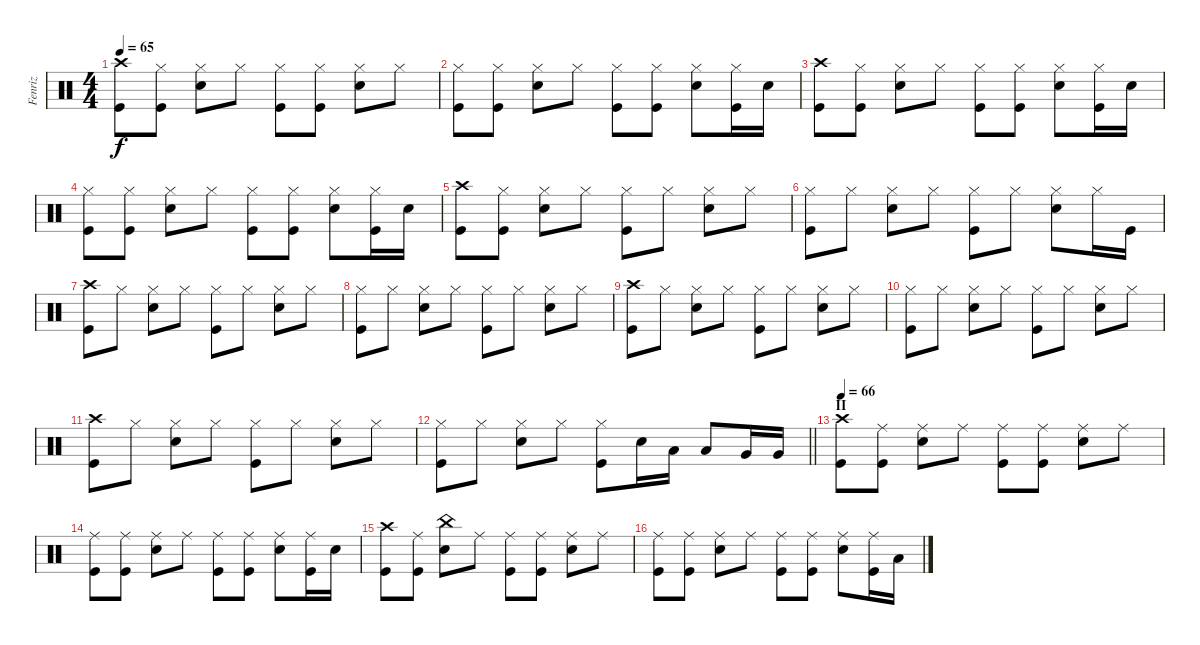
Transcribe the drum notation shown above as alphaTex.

\track ("Fenriz" "Fenriz") {instrument percussion}
\staff {score}
\articulation defaults
\ts (4 4)
\tempo 65
\clef neutral
\ks c
("Kick (hit)" "Crash high (hit)").8{dy f} ("Kick (hit)" "Hi-Hat (closed)").8 ("Snare (hit) 2" "Hi-Hat (closed)").8 "Hi-Hat (closed)".8 ("Kick (hit)" "Hi-Hat (closed)").8 ("Kick (hit)" "Hi-Hat (closed)").8 ("Snare (hit) 2" "Hi-Hat (closed)").8 "Hi-Hat (closed)".8 |
("Kick (hit)" "Hi-Hat (closed)").8 ("Kick (hit)" "Hi-Hat (closed)").8 ("Snare (hit) 2" "Hi-Hat (closed)").8 "Hi-Hat (closed)".8 ("Kick (hit)" "Hi-Hat (closed)").8 ("Kick (hit)" "Hi-Hat (closed)").8 ("Snare (hit) 2" "Hi-Hat (closed)").8 ("Kick (hit)" "Hi-Hat (closed)").16 "Snare (hit) 2".16 |
("Kick (hit)" "Crash high (hit)").8 ("Kick (hit)" "Hi-Hat (closed)").8 ("Snare (hit) 2" "Hi-Hat (closed)").8 "Hi-Hat (closed)".8 ("Kick (hit)" "Hi-Hat (closed)").8 ("Kick (hit)" "Hi-Hat (closed)").8 ("Snare (hit) 2" "Hi-Hat (closed)").8 ("Kick (hit)" "Hi-Hat (closed)").16 "Snare (hit) 2".16 |
("Kick (hit)" "Hi-Hat (closed)").8 ("Kick (hit)" "Hi-Hat (closed)").8 ("Snare (hit) 2" "Hi-Hat (closed)").8 "Hi-Hat (closed)".8 ("Kick (hit)" "Hi-Hat (closed)").8 ("Kick (hit)" "Hi-Hat (closed)").8 ("Snare (hit) 2" "Hi-Hat (closed)").8 ("Kick (hit)" "Hi-Hat (closed)").16 "Snare (hit) 2".16 |
("Kick (hit)" "Crash high (hit)").8 ("Kick (hit)" "Hi-Hat (closed)").8 ("Snare (hit) 2" "Hi-Hat (closed)").8 "Hi-Hat (closed)".8 ("Kick (hit)" "Hi-Hat (closed)").8 "Hi-Hat (closed)".8 ("Snare (hit) 2" "Hi-Hat (closed)").8 "Hi-Hat (closed)".8 |
("Kick (hit)" "Hi-Hat (closed)").8 "Hi-Hat (closed)".8 ("Snare (hit) 2" "Hi-Hat (closed)").8 "Hi-Hat (closed)".8 ("Kick (hit)" "Hi-Hat (closed)").8 "Hi-Hat (closed)".8 ("Snare (hit) 2" "Hi-Hat (closed)").8 "Hi-Hat (closed)".16 "Kick (hit)".16 |
("Kick (hit)" "Crash high (hit)").8 "Hi-Hat (closed)".8 ("Snare (hit) 2" "Hi-Hat (closed)").8 "Hi-Hat (closed)".8 ("Kick (hit)" "Hi-Hat (closed)").8 "Hi-Hat (closed)".8 ("Snare (hit) 2" "Hi-Hat (closed)").8 "Hi-Hat (closed)".8 |
("Kick (hit)" "Hi-Hat (closed)").8 "Hi-Hat (closed)".8 ("Snare (hit) 2" "Hi-Hat (closed)").8 "Hi-Hat (closed)".8 ("Kick (hit)" "Hi-Hat (closed)").8 "Hi-Hat (closed)".8 ("Snare (hit) 2" "Hi-Hat (closed)").8 "Hi-Hat (closed)".8 |
("Kick (hit)" "Crash high (hit)").8 "Hi-Hat (closed)".8 ("Snare (hit) 2" "Hi-Hat (closed)").8 "Hi-Hat (closed)".8 ("Kick (hit)" "Hi-Hat (closed)").8 "Hi-Hat (closed)".8 ("Snare (hit) 2" "Hi-Hat (closed)").8 "Hi-Hat (closed)".8 |
("Kick (hit)" "Hi-Hat (closed)").8 "Hi-Hat (closed)".8 ("Snare (hit) 2" "Hi-Hat (closed)").8 "Hi-Hat (closed)".8 ("Kick (hit)" "Hi-Hat (closed)").8 "Hi-Hat (closed)".8 ("Snare (hit) 2" "Hi-Hat (closed)").8 "Hi-Hat (closed)".8 |
("Kick (hit)" "Crash high (hit)").8 "Hi-Hat (closed)".8 ("Snare (hit) 2" "Hi-Hat (closed)").8 "Hi-Hat (closed)".8 ("Kick (hit)" "Hi-Hat (closed)").8 "Hi-Hat (closed)".8 ("Snare (hit) 2" "Hi-Hat (closed)").8 "Hi-Hat (closed)".8 |
\barLineRight lightlight
("Kick (hit)" "Hi-Hat (closed)").8 "Hi-Hat (closed)".8 ("Snare (hit) 2" "Hi-Hat (closed)").8 "Hi-Hat (closed)".8 ("Kick (hit)" "Hi-Hat (closed)").8 "Snare (hit) 2".16 "Low Tom (hit)".16 "Low Tom (hit)".8 "Very Low Tom (hit)".16 "Very Low Tom (hit)".16 |
\section ("" "II")
\tempo 66
("Kick (hit)" "Crash high (hit)").8 ("Kick (hit)" "Ride (middle)").8 ("Snare (hit) 2" "Ride (middle)").8 "Ride (middle)".8 ("Kick (hit)" "Ride (middle)").8 ("Kick (hit)" "Ride (middle)").8 ("Snare (hit) 2" "Ride (middle)").8 "Ride (middle)".8 |
("Kick (hit)" "Ride (middle)").8 ("Kick (hit)" "Ride (middle)").8 ("Snare (hit) 2" "Ride (middle)").8 "Ride (middle)".8 ("Kick (hit)" "Ride (middle)").8 ("Kick (hit)" "Ride (middle)").8 ("Snare (hit) 2" "Ride (middle)").8 ("Kick (hit)" "Ride (middle)").16 "Snare (hit) 2".16 |
("Kick (hit)" "Crash high (hit)").8 ("Kick (hit)" "Ride (middle)").8 ("Snare (hit) 2" "China (hit)").8 "Ride (middle)".8 ("Kick (hit)" "Ride (middle)").8 ("Kick (hit)" "Ride (middle)").8 ("Snare (hit) 2" "Ride (middle)").8 "Ride (middle)".8 |
("Kick (hit)" "Ride (middle)").8 ("Kick (hit)" "Ride (middle)").8 ("Snare (hit) 2" "Ride (middle)").8 "Ride (middle)".8 ("Kick (hit)" "Ride (middle)").8 ("Kick (hit)" "Ride (middle)").8 ("Snare (hit) 2" "Ride (middle)").8 ("Kick (hit)" "Ride (middle)").16 "Low Tom (hit)".16
